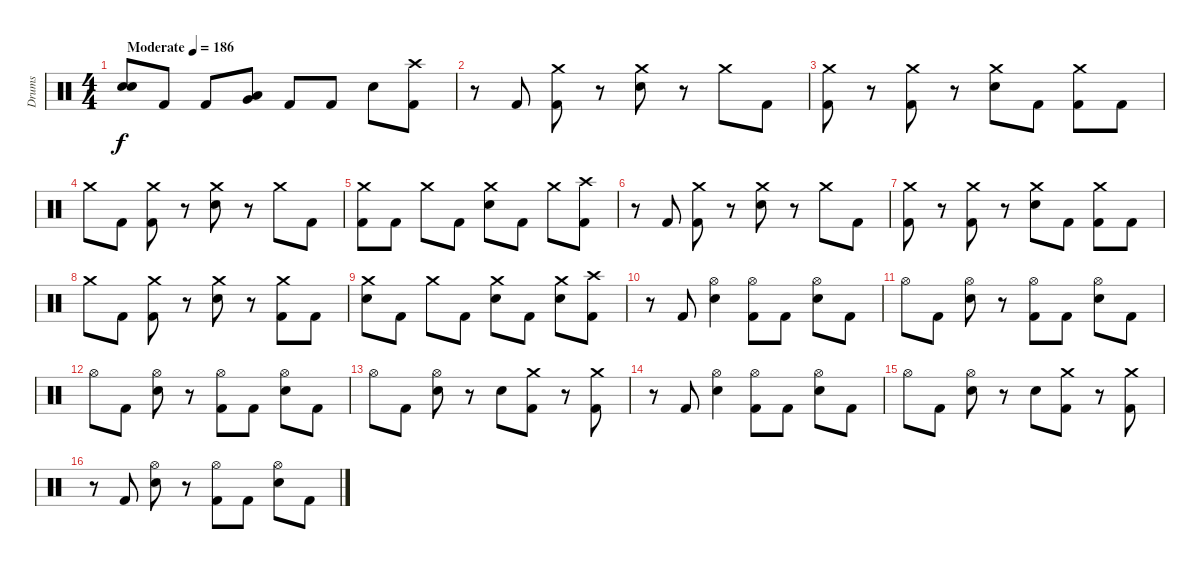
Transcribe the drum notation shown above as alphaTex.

\track ("Drums" "Drums") {instrument percussion}
\staff
\articulation defaults
\ts (4 4)
\tempo (186 "Moderate")
\clef neutral
\ks c
("Electric Snare (hit)" "Electric Snare (hit)").8{bd 60 dy f} "Kick (hit) 2".8 "Kick (hit) 2".8 ("Low Floor Tom (hit)" "Very Low Tom (hit)").8 "Kick (hit) 2".8 "Kick (hit) 2".8 "Electric Snare (hit)".8 ("Crash high (hit)" "Kick (hit) 2").8 |
r.8 "Kick (hit) 2".8 ("Crash medium (hit)" "Kick (hit) 2").8 r.8 ("Crash medium (hit)" "Electric Snare (hit)").8 r.8 "Crash medium (hit)".8 "Kick (hit) 2".8 |
("Crash medium (hit)" "Kick (hit) 2").8 r.8 ("Crash medium (hit)" "Kick (hit) 2").8 r.8 ("Crash medium (hit)" "Electric Snare (hit)").8 "Kick (hit) 2".8 ("Crash medium (hit)" "Kick (hit) 2").8 "Kick (hit) 2".8 |
"Crash medium (hit)".8 "Kick (hit) 2".8 ("Crash medium (hit)" "Kick (hit) 2").8 r.8 ("Crash medium (hit)" "Electric Snare (hit)").8 r.8 "Crash medium (hit)".8 "Kick (hit) 2".8 |
("Crash medium (hit)" "Kick (hit) 2").8 "Kick (hit) 2".8 "Crash medium (hit)".8 "Kick (hit) 2".8 ("Crash medium (hit)" "Electric Snare (hit)").8 "Kick (hit) 2".8 "Crash medium (hit)".8 ("Crash high (hit)" "Kick (hit) 2").8 |
r.8 "Kick (hit) 2".8 ("Crash medium (hit)" "Kick (hit) 2").8 r.8 ("Crash medium (hit)" "Electric Snare (hit)").8 r.8 "Crash medium (hit)".8 "Kick (hit) 2".8 |
("Crash medium (hit)" "Kick (hit) 2").8 r.8 ("Crash medium (hit)" "Kick (hit) 2").8 r.8 ("Crash medium (hit)" "Electric Snare (hit)").8 "Kick (hit) 2".8 ("Crash medium (hit)" "Kick (hit) 2").8 "Kick (hit) 2".8 |
"Crash medium (hit)".8 "Kick (hit) 2".8 ("Crash medium (hit)" "Kick (hit) 2").8 r.8 ("Crash medium (hit)" "Electric Snare (hit)").8 r.8 ("Crash medium (hit)" "Kick (hit) 2").8 "Kick (hit) 2".8 |
("Crash medium (hit)" "Electric Snare (hit)").8 "Kick (hit) 2".8 "Crash medium (hit)".8 "Kick (hit) 2".8 ("Crash medium (hit)" "Electric Snare (hit)").8 "Kick (hit) 2".8 ("Crash medium (hit)" "Electric Snare (hit)").8 ("Crash high (hit)" "Kick (hit) 2").8 |
r.8 "Kick (hit) 2".8 ("Hi-Hat (open)" "Electric Snare (hit)").4 ("Hi-Hat (open)" "Kick (hit) 2").8 "Kick (hit) 2".8 ("Hi-Hat (open)" "Electric Snare (hit)").8 "Kick (hit) 2".8 |
"Hi-Hat (open)".8 "Kick (hit) 2".8 ("Hi-Hat (open)" "Electric Snare (hit)").8 r.8 ("Hi-Hat (open)" "Kick (hit) 2").8 "Kick (hit) 2".8 ("Hi-Hat (open)" "Electric Snare (hit)").8 "Kick (hit) 2".8 |
"Hi-Hat (open)".8 "Kick (hit) 2".8 ("Hi-Hat (open)" "Electric Snare (hit)").8 r.8 ("Hi-Hat (open)" "Kick (hit) 2").8 "Kick (hit) 2".8 ("Hi-Hat (open)" "Electric Snare (hit)").8 "Kick (hit) 2".8 |
"Hi-Hat (open)".8 "Kick (hit) 2".8 ("Hi-Hat (open)" "Electric Snare (hit)").8 r.8 "Electric Snare (hit)".8 ("Crash medium (hit)" "Kick (hit) 2").8 r.8 ("Crash medium (hit)" "Kick (hit) 2").8 |
r.8 "Kick (hit) 2".8 ("Hi-Hat (open)" "Electric Snare (hit)").4 ("Hi-Hat (open)" "Kick (hit) 2").8 "Kick (hit) 2".8 ("Hi-Hat (open)" "Electric Snare (hit)").8 "Kick (hit) 2".8 |
"Hi-Hat (open)".8 "Kick (hit) 2".8 ("Hi-Hat (open)" "Electric Snare (hit)").8 r.8 "Electric Snare (hit)".8 ("Crash medium (hit)" "Kick (hit) 2").8 r.8 ("Crash medium (hit)" "Kick (hit) 2").8 |
r.8 "Kick (hit) 2".8 ("Hi-Hat (open)" "Electric Snare (hit)").8 r.8 ("Hi-Hat (open)" "Kick (hit) 2").8 "Kick (hit) 2".8 ("Hi-Hat (open)" "Electric Snare (hit)").8 "Kick (hit) 2".8
